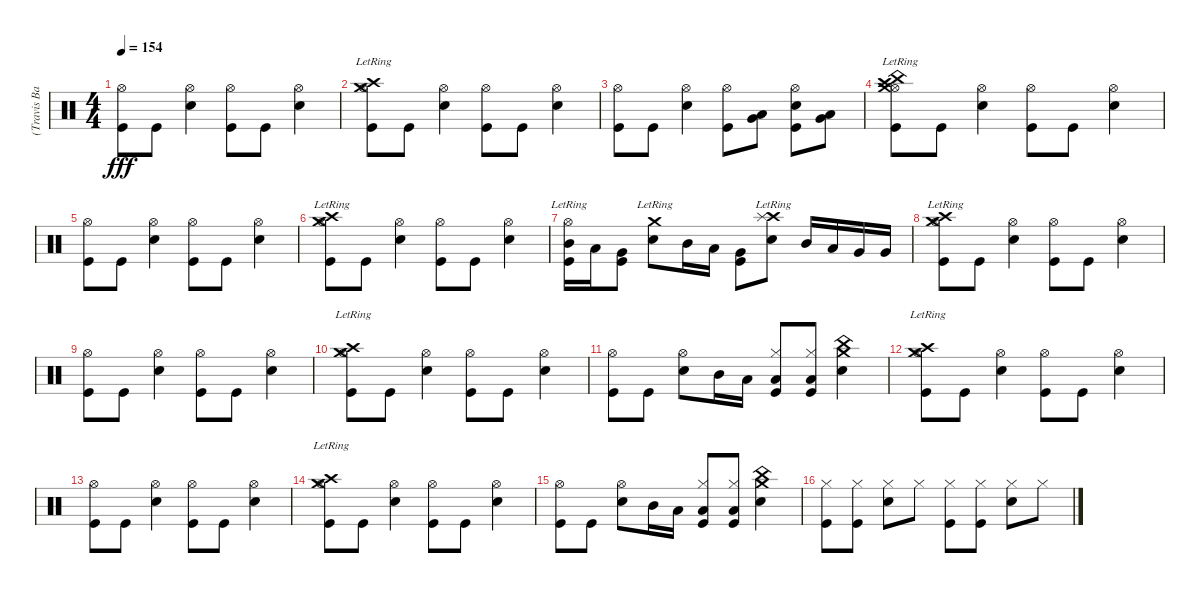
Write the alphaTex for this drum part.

\track ("(Travis Barker) Drums" "(Travis Ba") {instrument percussion}
\staff {score}
\articulation defaults
\ts (4 4)
\tempo 154
\clef neutral
\ks c
("Hi-Hat (open)" "Kick (hit)").8{dy fff} "Kick (hit)".8 ("Hi-Hat (open)" "Snare (hit) 2").4 ("Hi-Hat (open)" "Kick (hit)").8 "Kick (hit)".8 ("Hi-Hat (open)" "Snare (hit) 2").4 |
("Crash high (hit)"{lr} "Hi-Hat (open)" "Crash medium (hit)"{lr} "Kick (hit)").8 "Kick (hit)".8 ("Hi-Hat (open)" "Snare (hit) 2").4 ("Hi-Hat (open)" "Kick (hit)").8 "Kick (hit)".8 ("Hi-Hat (open)" "Snare (hit) 2").4 |
("Hi-Hat (open)" "Kick (hit)").8 "Kick (hit)".8 ("Hi-Hat (open)" "Snare (hit) 2").4 ("Hi-Hat (open)" "Kick (hit)").8 ("Very Low Tom (hit)" "Low Tom (hit)").8 ("Hi-Hat (open)" "Snare (hit) 2" "Kick (hit)").8 ("Very Low Tom (hit)" "Low Tom (hit)").8 |
("Crash high (hit)"{lr} "Hi-Hat (open)" "Crash medium (hit)"{lr} "Kick (hit)" "China (hit)").8 "Kick (hit)".8 ("Hi-Hat (open)" "Snare (hit) 2").4 ("Hi-Hat (open)" "Kick (hit)").8 "Kick (hit)".8 ("Hi-Hat (open)" "Snare (hit) 2").4 |
("Hi-Hat (open)" "Kick (hit)").8 "Kick (hit)".8 ("Hi-Hat (open)" "Snare (hit) 2").4 ("Hi-Hat (open)" "Kick (hit)").8 "Kick (hit)".8 ("Hi-Hat (open)" "Snare (hit) 2").4 |
("Crash high (hit)"{lr} "Hi-Hat (open)" "Crash medium (hit)"{lr} "Kick (hit)").8 "Kick (hit)".8 ("Hi-Hat (open)" "Snare (hit) 2").4 ("Hi-Hat (open)" "Kick (hit)").8 "Kick (hit)".8 ("Hi-Hat (open)" "Snare (hit) 2").4 |
("Hi-Hat (open)"{lr} "Mid Tom (hit)" "Kick (hit)").16 "Low Tom (hit)".16 ("Very Low Tom (hit)" "Kick (hit)").8 ("Crash medium (hit)"{lr} "Snare (hit) 2").8 "Mid Tom (hit)".16 "Low Tom (hit)".16 ("Very Low Tom (hit)" "Kick (hit)").8 ("Crash high (hit)"{lr} "Splash (hit)"{lr} "Snare (hit) 2").8 "Mid Tom (hit)".16 "Low Tom (hit)".16 "Very Low Tom (hit)".16 "Very Low Tom (hit)".16 |
("Crash high (hit)"{lr} "Hi-Hat (open)" "Crash medium (hit)"{lr} "Kick (hit)").8 "Kick (hit)".8 ("Hi-Hat (open)" "Snare (hit) 2").4 ("Hi-Hat (open)" "Kick (hit)").8 "Kick (hit)".8 ("Hi-Hat (open)" "Snare (hit) 2").4 |
("Hi-Hat (open)" "Kick (hit)").8 "Kick (hit)".8 ("Hi-Hat (open)" "Snare (hit) 2").4 ("Hi-Hat (open)" "Kick (hit)").8 "Kick (hit)".8 ("Hi-Hat (open)" "Snare (hit) 2").4 |
("Crash high (hit)"{lr} "Hi-Hat (open)" "Crash medium (hit)"{lr} "Kick (hit)").8 "Kick (hit)".8 ("Hi-Hat (open)" "Snare (hit) 2").4 ("Hi-Hat (open)" "Kick (hit)").8 "Kick (hit)".8 ("Hi-Hat (open)" "Snare (hit) 2").4 |
("Hi-Hat (open)" "Kick (hit)").8 "Kick (hit)".8 ("Hi-Hat (open)" "Snare (hit) 2").8 "Mid Tom (hit)".16 "Low Tom (hit)".16 ("Hi-Hat (closed)" "Low Floor Tom (hit)" "Kick (hit)").8 ("Hi-Hat (closed)" "Low Floor Tom (hit)" "Kick (hit)").8 ("Crash medium (hit)" "China (hit)" "Snare (hit) 2").4 |
("Crash high (hit)"{lr} "Hi-Hat (open)" "Crash medium (hit)"{lr} "Kick (hit)").8 "Kick (hit)".8 ("Hi-Hat (open)" "Snare (hit) 2").4 ("Hi-Hat (open)" "Kick (hit)").8 "Kick (hit)".8 ("Hi-Hat (open)" "Snare (hit) 2").4 |
("Hi-Hat (open)" "Kick (hit)").8 "Kick (hit)".8 ("Hi-Hat (open)" "Snare (hit) 2").4 ("Hi-Hat (open)" "Kick (hit)").8 "Kick (hit)".8 ("Hi-Hat (open)" "Snare (hit) 2").4 |
("Crash high (hit)"{lr} "Hi-Hat (open)" "Crash medium (hit)"{lr} "Kick (hit)").8 "Kick (hit)".8 ("Hi-Hat (open)" "Snare (hit) 2").4 ("Hi-Hat (open)" "Kick (hit)").8 "Kick (hit)".8 ("Hi-Hat (open)" "Snare (hit) 2").4 |
("Hi-Hat (open)" "Kick (hit)").8 "Kick (hit)".8 ("Hi-Hat (open)" "Snare (hit) 2").8 "Mid Tom (hit)".16 "Low Tom (hit)".16 ("Hi-Hat (closed)" "Low Floor Tom (hit)" "Kick (hit)").8 ("Hi-Hat (closed)" "Low Floor Tom (hit)" "Kick (hit)").8 ("Crash medium (hit)" "China (hit)" "Snare (hit) 2").4 |
("Hi-Hat (closed)" "Kick (hit)").8 ("Hi-Hat (closed)" "Kick (hit)").8 ("Hi-Hat (closed)" "Snare (hit) 2").8 "Hi-Hat (closed)".8 ("Hi-Hat (closed)" "Kick (hit)").8 ("Hi-Hat (closed)" "Kick (hit)").8 ("Hi-Hat (closed)" "Snare (hit) 2").8 "Hi-Hat (closed)".8
